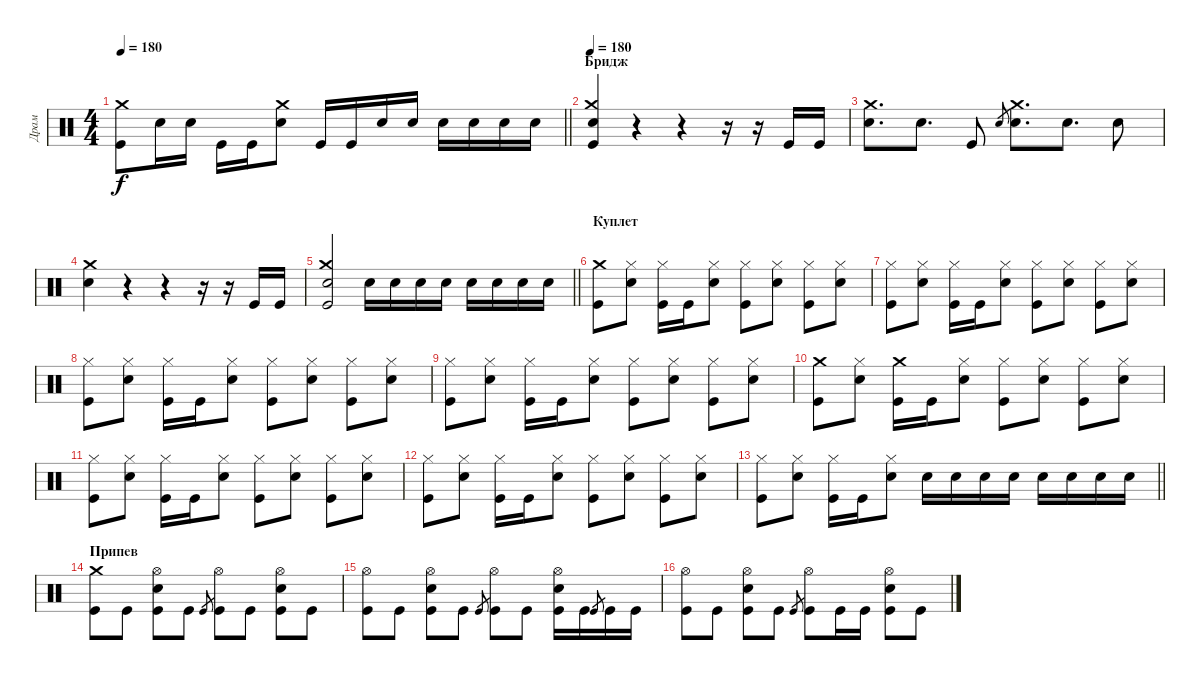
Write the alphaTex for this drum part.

\track ("Драм" "Драм") {instrument percussion}
\staff {score}
\articulation defaults
\ts (4 4)
\tempo 180
\clef neutral
\barLineRight lightlight
\ks c
("Kick (hit)" "Crash medium (hit)").8{dy f} "Electric Snare (hit)".16 "Electric Snare (hit)".16 "Kick (hit)".16 "Kick (hit)".16 ("Electric Snare (hit)" "Crash medium (hit)").8 "Kick (hit)".16 "Kick (hit)".16 "Electric Snare (hit)".16 "Electric Snare (hit)".16 "Electric Snare (hit)".16 "Electric Snare (hit)".16 "Electric Snare (hit)".16 "Electric Snare (hit)".16 |
\section ("" "Бридж")
\tempo 180
("Crash medium (hit)" "Electric Snare (hit)" "Kick (hit)").4 r.4 r.4 r.16 r.16 "Kick (hit)".16 "Kick (hit)".16 |
("Crash medium (hit)" "Electric Snare (hit)").8{d} "Electric Snare (hit)".8{d} "Kick (hit)".8 "Electric Snare (hit)".8{gr} ("Electric Snare (hit)" "Crash medium (hit)").8{d} "Electric Snare (hit)".8{d} "Electric Snare (hit)".8 |
("Crash medium (hit)" "Electric Snare (hit)").4 r.4 r.4 r.16 r.16 "Kick (hit)".16 "Kick (hit)".16 |
\barLineRight lightlight
("Crash medium (hit)" "Kick (hit)" "Electric Snare (hit)").2 "Electric Snare (hit)".16 "Electric Snare (hit)".16 "Electric Snare (hit)".16 "Electric Snare (hit)".16 "Electric Snare (hit)".16 "Electric Snare (hit)".16 "Electric Snare (hit)".16 "Electric Snare (hit)".16 |
\section ("" "Куплет")
("Kick (hit)" "Crash medium (hit)").8 ("Electric Snare (hit)" "Hi-Hat (closed)").8 ("Kick (hit)" "Hi-Hat (closed)").16 "Kick (hit)".16 ("Electric Snare (hit)" "Hi-Hat (closed)").8 ("Kick (hit)" "Hi-Hat (closed)").8 ("Electric Snare (hit)" "Hi-Hat (closed)").8 ("Kick (hit)" "Hi-Hat (closed)").8 ("Electric Snare (hit)" "Hi-Hat (closed)").8 |
("Kick (hit)" "Hi-Hat (closed)").8 ("Electric Snare (hit)" "Hi-Hat (closed)").8 ("Kick (hit)" "Hi-Hat (closed)").16 "Kick (hit)".16 ("Electric Snare (hit)" "Hi-Hat (closed)").8 ("Kick (hit)" "Hi-Hat (closed)").8 ("Electric Snare (hit)" "Hi-Hat (closed)").8 ("Kick (hit)" "Hi-Hat (closed)").8 ("Electric Snare (hit)" "Hi-Hat (closed)").8 |
("Kick (hit)" "Hi-Hat (closed)").8 ("Electric Snare (hit)" "Hi-Hat (closed)").8 ("Kick (hit)" "Hi-Hat (closed)").16 "Kick (hit)".16 ("Electric Snare (hit)" "Hi-Hat (closed)").8 ("Kick (hit)" "Hi-Hat (closed)").8 ("Electric Snare (hit)" "Hi-Hat (closed)").8 ("Kick (hit)" "Hi-Hat (closed)").8 ("Electric Snare (hit)" "Hi-Hat (closed)").8 |
("Kick (hit)" "Hi-Hat (closed)").8 ("Electric Snare (hit)" "Hi-Hat (closed)").8 ("Kick (hit)" "Hi-Hat (closed)").16 "Kick (hit)".16 ("Electric Snare (hit)" "Hi-Hat (closed)").8 ("Kick (hit)" "Hi-Hat (closed)").8 ("Electric Snare (hit)" "Hi-Hat (closed)").8 ("Kick (hit)" "Hi-Hat (closed)").8 ("Electric Snare (hit)" "Hi-Hat (closed)").8 |
("Kick (hit)" "Crash medium (hit)").8 ("Electric Snare (hit)" "Hi-Hat (closed)").8 ("Kick (hit)" "Crash medium (hit)").16 "Kick (hit)".16 ("Electric Snare (hit)" "Hi-Hat (closed)").8 ("Kick (hit)" "Hi-Hat (closed)").8 ("Electric Snare (hit)" "Hi-Hat (closed)").8 ("Kick (hit)" "Hi-Hat (closed)").8 ("Electric Snare (hit)" "Hi-Hat (closed)").8 |
("Kick (hit)" "Hi-Hat (closed)").8 ("Electric Snare (hit)" "Hi-Hat (closed)").8 ("Kick (hit)" "Hi-Hat (closed)").16 "Kick (hit)".16 ("Electric Snare (hit)" "Hi-Hat (closed)").8 ("Kick (hit)" "Hi-Hat (closed)").8 ("Electric Snare (hit)" "Hi-Hat (closed)").8 ("Kick (hit)" "Hi-Hat (closed)").8 ("Electric Snare (hit)" "Hi-Hat (closed)").8 |
("Kick (hit)" "Hi-Hat (closed)").8 ("Electric Snare (hit)" "Hi-Hat (closed)").8 ("Kick (hit)" "Hi-Hat (closed)").16 "Kick (hit)".16 ("Electric Snare (hit)" "Hi-Hat (closed)").8 ("Kick (hit)" "Hi-Hat (closed)").8 ("Electric Snare (hit)" "Hi-Hat (closed)").8 ("Kick (hit)" "Hi-Hat (closed)").8 ("Electric Snare (hit)" "Hi-Hat (closed)").8 |
\barLineRight lightlight
("Kick (hit)" "Hi-Hat (closed)").8 ("Electric Snare (hit)" "Hi-Hat (closed)").8 ("Kick (hit)" "Hi-Hat (closed)").16 "Kick (hit)".16 ("Electric Snare (hit)" "Hi-Hat (closed)").8 "Electric Snare (hit)".16 "Electric Snare (hit)".16 "Electric Snare (hit)".16 "Electric Snare (hit)".16 "Electric Snare (hit)".16 "Electric Snare (hit)".16 "Electric Snare (hit)".16 "Electric Snare (hit)".16 |
\section ("" "Припев")
("Kick (hit)" "Crash medium (hit)").8 "Kick (hit)".8 ("Kick (hit)" "Electric Snare (hit)" "Hi-Hat (open)").8 "Kick (hit)".8 "Kick (hit)".8{gr} ("Kick (hit)" "Hi-Hat (open)").8 "Kick (hit)".8 ("Kick (hit)" "Electric Snare (hit)" "Hi-Hat (open)").8 "Kick (hit)".8 |
("Kick (hit)" "Hi-Hat (open)").8 "Kick (hit)".8 ("Kick (hit)" "Electric Snare (hit)" "Hi-Hat (open)").8 "Kick (hit)".8 "Kick (hit)".8{gr} ("Kick (hit)" "Hi-Hat (open)").8 "Kick (hit)".8 ("Kick (hit)" "Electric Snare (hit)" "Hi-Hat (open)").16 "Kick (hit)".16 "Kick (hit)".8{gr} "Kick (hit)".16 "Kick (hit)".16 |
("Kick (hit)" "Hi-Hat (open)").8 "Kick (hit)".8 ("Kick (hit)" "Electric Snare (hit)" "Hi-Hat (open)").8 "Kick (hit)".8 "Kick (hit)".8{gr} ("Kick (hit)" "Hi-Hat (open)").8 "Kick (hit)".16 "Kick (hit)".16 ("Kick (hit)" "Electric Snare (hit)" "Hi-Hat (open)").8 "Kick (hit)".8
